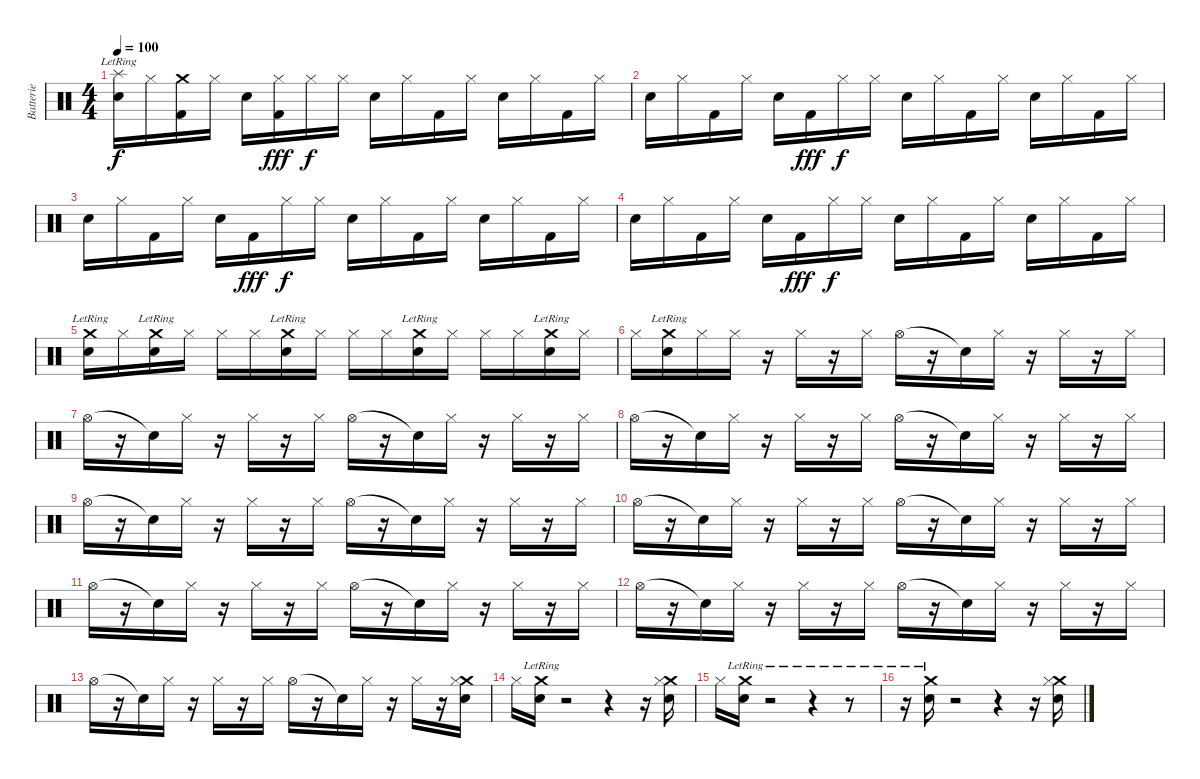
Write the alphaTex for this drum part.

\track ("Batterie" "Batterie") {instrument percussion}
\staff {score}
\articulation defaults
\ts (4 4)
\tempo 100
\clef neutral
\ks c
("Splash (hit)"{lr} "Metronome (bell)").16{dy f} "Hi-Hat (closed)".16 ("Crash medium (hit)" "Kick (hit) 2").16 "Hi-Hat (closed)".16 "Metronome (bell)".16 ("Kick (hit) 2" "Hi-Hat (closed)").16{dy fff} "Hi-Hat (closed)".16{dy f} "Hi-Hat (closed)".16 "Metronome (bell)".16 "Hi-Hat (closed)".16 "Kick (hit) 2".16 "Hi-Hat (closed)".16 "Metronome (bell)".16 "Hi-Hat (closed)".16 "Kick (hit) 2".16 "Hi-Hat (closed)".16 |
"Metronome (bell)".16 "Hi-Hat (closed)".16 "Kick (hit) 2".16 "Hi-Hat (closed)".16 "Metronome (bell)".16 "Kick (hit) 2".16{dy fff} "Hi-Hat (closed)".16{dy f} "Hi-Hat (closed)".16 "Metronome (bell)".16 "Hi-Hat (closed)".16 "Kick (hit) 2".16 "Hi-Hat (closed)".16 "Metronome (bell)".16 "Hi-Hat (closed)".16 "Kick (hit) 2".16 "Hi-Hat (closed)".16 |
"Metronome (bell)".16 "Hi-Hat (closed)".16 "Kick (hit) 2".16 "Hi-Hat (closed)".16 "Metronome (bell)".16 "Kick (hit) 2".16{dy fff} "Hi-Hat (closed)".16{dy f} "Hi-Hat (closed)".16 "Metronome (bell)".16 "Hi-Hat (closed)".16 "Kick (hit) 2".16 "Hi-Hat (closed)".16 "Metronome (bell)".16 "Hi-Hat (closed)".16 "Kick (hit) 2".16 "Hi-Hat (closed)".16 |
"Metronome (bell)".16 "Hi-Hat (closed)".16 "Kick (hit) 2".16 "Hi-Hat (closed)".16 "Metronome (bell)".16 "Kick (hit) 2".16{dy fff} "Hi-Hat (closed)".16{dy f} "Hi-Hat (closed)".16 "Metronome (bell)".16 "Hi-Hat (closed)".16 "Kick (hit) 2".16 "Hi-Hat (closed)".16 "Metronome (bell)".16 "Hi-Hat (closed)".16 "Kick (hit) 2".16 "Hi-Hat (closed)".16 |
("Crash medium (hit)"{lr} "Metronome (bell)").16 "Hi-Hat (closed)".16 ("Crash medium (hit)"{lr} "Metronome (bell)").16 "Hi-Hat (closed)".16 "Hi-Hat (closed)".16 "Hi-Hat (closed)".16 ("Crash medium (hit)"{lr} "Metronome (bell)").16 "Hi-Hat (closed)".16 "Hi-Hat (closed)".16 "Hi-Hat (closed)".16 ("Crash medium (hit)"{lr} "Metronome (bell)").16 "Hi-Hat (closed)".16 "Hi-Hat (closed)".16 "Hi-Hat (closed)".16 ("Crash medium (hit)"{lr} "Metronome (bell)").16 "Hi-Hat (closed)".16 |
"Hi-Hat (closed)".16 ("Crash medium (hit)"{lr} "Metronome (bell)").16 "Hi-Hat (closed)".16 "Hi-Hat (closed)".16 r.16 "Hi-Hat (closed)".16 r.16 "Hi-Hat (closed)".16 "Hi-Hat (open)".16 r.16 "Snare (hit)"{t}.16 "Hi-Hat (closed)".16 r.16 "Hi-Hat (closed)".16 r.16 "Hi-Hat (closed)".16 |
"Hi-Hat (open)".16 r.16 "Snare (hit)"{t}.16 "Hi-Hat (closed)".16 r.16 "Hi-Hat (closed)".16 r.16 "Hi-Hat (closed)".16 "Hi-Hat (open)".16 r.16 "Snare (hit)"{t}.16 "Hi-Hat (closed)".16 r.16 "Hi-Hat (closed)".16 r.16 "Hi-Hat (closed)".16 |
"Hi-Hat (open)".16 r.16 "Snare (hit)"{t}.16 "Hi-Hat (closed)".16 r.16 "Hi-Hat (closed)".16 r.16 "Hi-Hat (closed)".16 "Hi-Hat (open)".16 r.16 "Snare (hit)"{t}.16 "Hi-Hat (closed)".16 r.16 "Hi-Hat (closed)".16 r.16 "Hi-Hat (closed)".16 |
"Hi-Hat (open)".16 r.16 "Snare (hit)"{t}.16 "Hi-Hat (closed)".16 r.16 "Hi-Hat (closed)".16 r.16 "Hi-Hat (closed)".16 "Hi-Hat (open)".16 r.16 "Snare (hit)"{t}.16 "Hi-Hat (closed)".16 r.16 "Hi-Hat (closed)".16 r.16 "Hi-Hat (closed)".16 |
"Hi-Hat (open)".16 r.16 "Snare (hit)"{t}.16 "Hi-Hat (closed)".16 r.16 "Hi-Hat (closed)".16 r.16 "Hi-Hat (closed)".16 "Hi-Hat (open)".16 r.16 "Snare (hit)"{t}.16 "Hi-Hat (closed)".16 r.16 "Hi-Hat (closed)".16 r.16 "Hi-Hat (closed)".16 |
"Hi-Hat (open)".16 r.16 "Snare (hit)"{t}.16 "Hi-Hat (closed)".16 r.16 "Hi-Hat (closed)".16 r.16 "Hi-Hat (closed)".16 "Hi-Hat (open)".16 r.16 "Snare (hit)"{t}.16 "Hi-Hat (closed)".16 r.16 "Hi-Hat (closed)".16 r.16 "Hi-Hat (closed)".16 |
"Hi-Hat (open)".16 r.16 "Snare (hit)"{t}.16 "Hi-Hat (closed)".16 r.16 "Hi-Hat (closed)".16 r.16 "Hi-Hat (closed)".16 "Hi-Hat (open)".16 r.16 "Snare (hit)"{t}.16 "Hi-Hat (closed)".16 r.16 "Hi-Hat (closed)".16 r.16 "Hi-Hat (closed)".16 |
"Hi-Hat (open)".16 r.16 "Snare (hit)"{t}.16 "Hi-Hat (closed)".16 r.16 "Hi-Hat (closed)".16 r.16 "Hi-Hat (closed)".16 "Hi-Hat (open)".16 r.16 "Snare (hit)"{t}.16 "Hi-Hat (closed)".16 r.16 "Hi-Hat (closed)".16 r.16 ("Crash medium (hit)" "Metronome (bell)" "Hi-Hat (closed)").16 |
"Hi-Hat (closed)".16 ("Crash medium (hit)"{lr} "Metronome (bell)").16 r.2 r.4 r.16 ("Crash medium (hit)" "Metronome (bell)" "Hi-Hat (closed)").16 |
"Hi-Hat (closed)".16 ("Crash medium (hit)"{lr} "Metronome (bell)").16 r.2 r.4 r.8 |
r.16 ("Crash medium (hit)"{lr} "Metronome (bell)").16 r.2 r.4 r.16 ("Crash medium (hit)" "Metronome (bell)" "Hi-Hat (closed)").16
